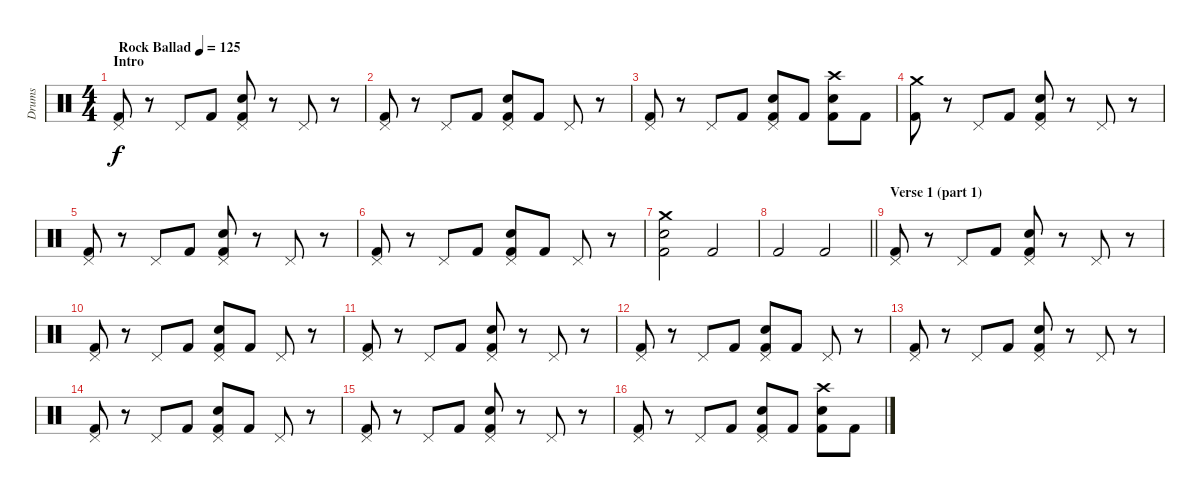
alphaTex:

\track ("Drums" "Drums") {instrument percussion}
\staff {score}
\articulation defaults
\ts (4 4)
\section ("" "Intro")
\tempo (125 "Rock Ballad")
\clef neutral
\ks c
("Pedal Hi-Hat (hit)" "Kick (hit) 2").8{dy f} r.8 "Pedal Hi-Hat (hit)".8 "Kick (hit) 2".8 ("Pedal Hi-Hat (hit)" "Electric Snare (hit)" "Kick (hit) 2").8 r.8 "Pedal Hi-Hat (hit)".8 r.8 |
("Pedal Hi-Hat (hit)" "Kick (hit) 2").8 r.8 "Pedal Hi-Hat (hit)".8 "Kick (hit) 2".8 ("Pedal Hi-Hat (hit)" "Electric Snare (hit)" "Kick (hit) 2").8 "Kick (hit) 2".8 "Pedal Hi-Hat (hit)".8 r.8 |
("Pedal Hi-Hat (hit)" "Kick (hit) 2").8 r.8 "Pedal Hi-Hat (hit)".8 "Kick (hit) 2".8 ("Pedal Hi-Hat (hit)" "Electric Snare (hit)" "Kick (hit) 2").8 "Kick (hit) 2".8 ("Crash high (hit)" "Electric Snare (hit)" "Kick (hit) 2").8 "Kick (hit) 2".8 |
("Crash medium (hit)" "Kick (hit) 2").8 r.8 "Pedal Hi-Hat (hit)".8 "Kick (hit) 2".8 ("Pedal Hi-Hat (hit)" "Electric Snare (hit)" "Kick (hit) 2").8 r.8 "Pedal Hi-Hat (hit)".8 r.8 |
("Pedal Hi-Hat (hit)" "Kick (hit) 2").8 r.8 "Pedal Hi-Hat (hit)".8 "Kick (hit) 2".8 ("Pedal Hi-Hat (hit)" "Electric Snare (hit)" "Kick (hit) 2").8 r.8 "Pedal Hi-Hat (hit)".8 r.8 |
("Pedal Hi-Hat (hit)" "Kick (hit) 2").8 r.8 "Pedal Hi-Hat (hit)".8 "Kick (hit) 2".8 ("Pedal Hi-Hat (hit)" "Electric Snare (hit)" "Kick (hit) 2").8 "Kick (hit) 2".8 "Pedal Hi-Hat (hit)".8 r.8 |
("Crash medium (hit)" "Electric Snare (hit)" "Kick (hit) 2").2 "Kick (hit) 2".2 |
\barLineRight lightlight "Kick (hit) 2".2 "Kick (hit) 2".2
|
\section ("" "Verse 1 (part 1)")
("Pedal Hi-Hat (hit)" "Kick (hit) 2").8 r.8 "Pedal Hi-Hat (hit)".8 "Kick (hit) 2".8 ("Pedal Hi-Hat (hit)" "Electric Snare (hit)" "Kick (hit) 2").8 r.8 "Pedal Hi-Hat (hit)".8 r.8 |
("Pedal Hi-Hat (hit)" "Kick (hit) 2").8 r.8 "Pedal Hi-Hat (hit)".8 "Kick (hit) 2".8 ("Pedal Hi-Hat (hit)" "Electric Snare (hit)" "Kick (hit) 2").8 "Kick (hit) 2".8 "Pedal Hi-Hat (hit)".8 r.8 |
("Pedal Hi-Hat (hit)" "Kick (hit) 2").8 r.8 "Pedal Hi-Hat (hit)".8 "Kick (hit) 2".8 ("Pedal Hi-Hat (hit)" "Electric Snare (hit)" "Kick (hit) 2").8 r.8 "Pedal Hi-Hat (hit)".8 r.8 |
("Pedal Hi-Hat (hit)" "Kick (hit) 2").8 r.8 "Pedal Hi-Hat (hit)".8 "Kick (hit) 2".8 ("Pedal Hi-Hat (hit)" "Electric Snare (hit)" "Kick (hit) 2").8 "Kick (hit) 2".8 "Pedal Hi-Hat (hit)".8 r.8 |
("Pedal Hi-Hat (hit)" "Kick (hit) 2").8 r.8 "Pedal Hi-Hat (hit)".8 "Kick (hit) 2".8 ("Pedal Hi-Hat (hit)" "Electric Snare (hit)" "Kick (hit) 2").8 r.8 "Pedal Hi-Hat (hit)".8 r.8 |
("Pedal Hi-Hat (hit)" "Kick (hit) 2").8 r.8 "Pedal Hi-Hat (hit)".8 "Kick (hit) 2".8 ("Pedal Hi-Hat (hit)" "Electric Snare (hit)" "Kick (hit) 2").8 "Kick (hit) 2".8 "Pedal Hi-Hat (hit)".8 r.8 |
("Pedal Hi-Hat (hit)" "Kick (hit) 2").8 r.8 "Pedal Hi-Hat (hit)".8 "Kick (hit) 2".8 ("Pedal Hi-Hat (hit)" "Electric Snare (hit)" "Kick (hit) 2").8 r.8 "Pedal Hi-Hat (hit)".8 r.8 |
("Pedal Hi-Hat (hit)" "Kick (hit) 2").8 r.8 "Pedal Hi-Hat (hit)".8 "Kick (hit) 2".8 ("Pedal Hi-Hat (hit)" "Electric Snare (hit)" "Kick (hit) 2").8 "Kick (hit) 2".8 ("Crash high (hit)" "Electric Snare (hit)" "Kick (hit) 2").8 "Kick (hit) 2".8
